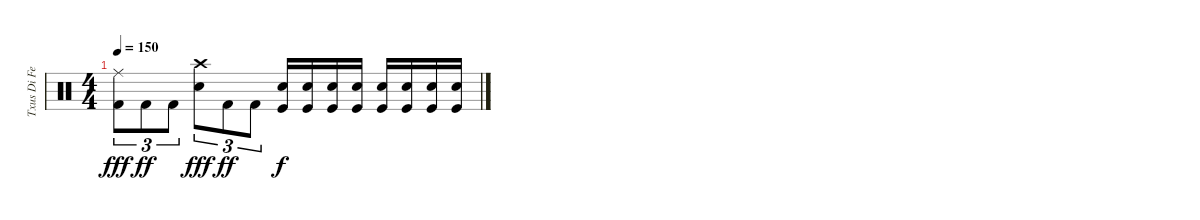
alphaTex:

\track ("Txus Di Fellatio" "Txus Di Fe") {instrument percussion}
\staff {score}
\articulation defaults
\ts (4 4)
\tempo 150
\clef neutral
\ks c
("Kick (hit) 2" "Ride (middle)").8{tu (3 2) dy fff} "Kick (hit) 2".8{tu (3 2) dy ff} "Kick (hit) 2".8{tu (3 2)} ("Electric Snare (hit)" "Crash high (hit)").8{tu (3 2) dy fff} "Kick (hit) 2".8{tu (3 2) dy ff} "Kick (hit) 2".8{tu (3 2)} ("Snare (hit) 2" "Kick (hit)").16{dy f} ("Kick (hit)" "Snare (hit) 2").16 ("Snare (hit) 2" "Kick (hit)").16 ("Snare (hit) 2" "Kick (hit)").16 ("Kick (hit)" "Snare (hit) 2").16 ("Snare (hit) 2" "Kick (hit)").16 ("Kick (hit)" "Snare (hit) 2").16 ("Snare (hit) 2" "Kick (hit)").16
